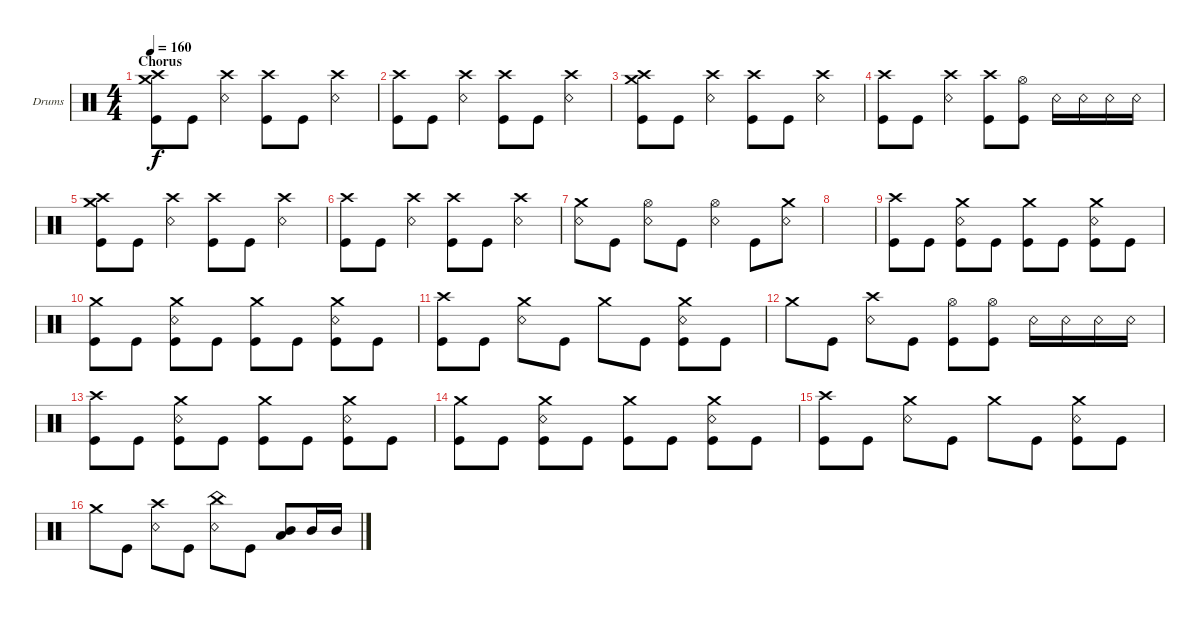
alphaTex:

\bracketExtendMode groupsimilarinstruments
\firstSystemTrackNameOrientation horizontal
\otherSystemsTrackNameOrientation horizontal
\track ("Drumkit" "Drums") {instrument percussion}
\staff {score}
\articulation defaults
\ts (4 4)
\section ("" "Chorus")
\tempo 160
\clef neutral
\scale
0.333333
\ks c
("Crash medium (hit)" "Crash high (hit)" "Kick (hit)").8{dy f} "Kick (hit)".8 ("Crash high (hit)" "Snare (rim shot)").4 ("Crash high (hit)" "Kick (hit)").8 "Kick (hit)".8 ("Crash high (hit)" "Snare (rim shot)").4 |
\scale
0.333333 ("Crash high (hit)" "Kick (hit)").8 "Kick (hit)".8 ("Crash high (hit)" "Snare (rim shot)").4 ("Crash high (hit)" "Kick (hit)").8 "Kick (hit)".8 ("Crash high (hit)" "Snare (rim shot)").4 |
\scale
0.333333 ("Crash medium (hit)" "Crash high (hit)" "Kick (hit)").8 "Kick (hit)".8 ("Crash high (hit)" "Snare (rim shot)").4 ("Crash high (hit)" "Kick (hit)").8 "Kick (hit)".8 ("Crash high (hit)" "Snare (rim shot)").4 |
\scale
0.333333 ("Crash high (hit)" "Kick (hit)").8 "Kick (hit)".8 ("Crash high (hit)" "Snare (rim shot)").4 ("Crash high (hit)" "Kick (hit)").8 ("Hi-Hat (open)" "Kick (hit)").8 "Snare (rim shot)".16 "Snare (rim shot)".16 "Snare (rim shot)".16 "Snare (rim shot)".16 |
\scale
0.333333 ("Crash medium (hit)" "Crash high (hit)" "Kick (hit)").8 "Kick (hit)".8 ("Crash high (hit)" "Snare (rim shot)").4 ("Crash high (hit)" "Kick (hit)").8 "Kick (hit)".8 ("Crash high (hit)" "Snare (rim shot)").4 |
\scale
0.333333 ("Crash high (hit)" "Kick (hit)").8 "Kick (hit)".8 ("Crash high (hit)" "Snare (rim shot)").4 ("Crash high (hit)" "Kick (hit)").8 "Kick (hit)".8 ("Crash high (hit)" "Snare (rim shot)").4 |
\scale
0.333333 ("Crash medium (hit)" "Snare (rim shot)").8 "Kick (hit)".8 ("Hi-Hat (open)" "Snare (rim shot)").8 "Kick (hit)".8 ("Hi-Hat (open)" "Snare (rim shot)").4 "Kick (hit)".8 ("Crash medium (hit)" "Snare (rim shot)").8 |
\scale
0.333333 |
\scale
0.333333 ("Kick (hit)" "Crash high (hit)").8 "Kick (hit)".8 ("Kick (hit)" "Crash medium (hit)" "Snare (rim shot)").8 "Kick (hit)".8 ("Kick (hit)" "Crash medium (hit)").8 "Kick (hit)".8 ("Kick (hit)" "Crash medium (hit)" "Snare (rim shot)").8 "Kick (hit)".8 |
\scale
0.333333 ("Kick (hit)" "Crash medium (hit)").8 "Kick (hit)".8 ("Kick (hit)" "Crash medium (hit)" "Snare (rim shot)").8 "Kick (hit)".8 ("Kick (hit)" "Crash medium (hit)").8 "Kick (hit)".8 ("Kick (hit)" "Crash medium (hit)" "Snare (rim shot)").8 "Kick (hit)".8 |
\scale
0.333333 ("Kick (hit)" "Crash high (hit)").8 "Kick (hit)".8 ("Snare (rim shot)" "Crash medium (hit)").8 "Kick (hit)".8 "Crash medium (hit)".8 "Kick (hit)".8 ("Snare (rim shot)" "Kick (hit)" "Crash medium (hit)").8 "Kick (hit)".8 |
\scale
0.333333 "Crash medium (hit)".8 "Kick (hit)".8 ("Snare (rim shot)" "Crash high (hit)").8 "Kick (hit)".8 ("Kick (hit)" "Hi-Hat (open)").8 ("Kick (hit)" "Hi-Hat (open)").8 "Snare (rim shot)".16 "Snare (rim shot)".16 "Snare (rim shot)".16 "Snare (rim shot)".16 |
\scale
0.333333 ("Kick (hit)" "Crash high (hit)").8 "Kick (hit)".8 ("Kick (hit)" "Crash medium (hit)" "Snare (rim shot)").8 "Kick (hit)".8 ("Kick (hit)" "Crash medium (hit)").8 "Kick (hit)".8 ("Kick (hit)" "Crash medium (hit)" "Snare (rim shot)").8 "Kick (hit)".8 |
\scale
0.333333 ("Kick (hit)" "Crash medium (hit)").8 "Kick (hit)".8 ("Kick (hit)" "Crash medium (hit)" "Snare (rim shot)").8 "Kick (hit)".8 ("Kick (hit)" "Crash medium (hit)").8 "Kick (hit)".8 ("Kick (hit)" "Crash medium (hit)" "Snare (rim shot)").8 "Kick (hit)".8 |
\scale
0.333333 ("Kick (hit)" "Crash high (hit)").8 "Kick (hit)".8 ("Snare (rim shot)" "Crash medium (hit)").8 "Kick (hit)".8 "Crash medium (hit)".8 "Kick (hit)".8 ("Snare (rim shot)" "Kick (hit)" "Crash medium (hit)").8 "Kick (hit)".8 |
\scale
0.333333 "Crash medium (hit)".8 "Kick (hit)".8 ("Snare (rim shot)" "Crash high (hit)").8 "Kick (hit)".8 ("Snare (rim shot)" "China (hit)").8 "Kick (hit)".8 ("Mid Tom (hit)" "Low Tom (hit)").8 "Mid Tom (hit)".16 "Mid Tom (hit)".16
